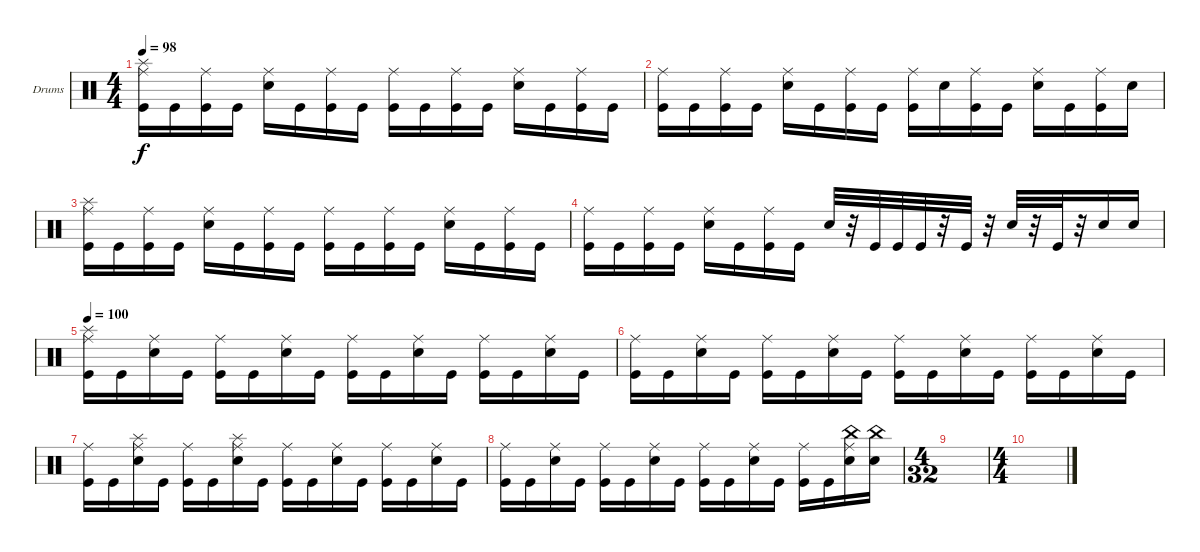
\bracketExtendMode groupsimilarinstruments
\firstSystemTrackNameOrientation horizontal
\otherSystemsTrackNameOrientation horizontal
\track ("Drumkit" "Drums") {instrument percussion}
\staff {score}
\articulation defaults
\ts (4 4)
\tempo 98
\clef neutral
\ks c
("Kick (hit)" "Splash (hit)" "Ride (middle)").16{dy f} "Kick (hit)".16 ("Kick (hit)" "Ride (middle)").16 "Kick (hit)".16 ("Snare (hit) 2" "Ride (middle)").16 "Kick (hit)".16 ("Kick (hit)" "Ride (middle)").16 "Kick (hit)".16 ("Kick (hit)" "Ride (middle)").16 "Kick (hit)".16 ("Kick (hit)" "Ride (middle)").16 "Kick (hit)".16 ("Snare (hit) 2" "Ride (middle)").16 "Kick (hit)".16 ("Kick (hit)" "Ride (middle)").16 "Kick (hit)".16 |
("Kick (hit)" "Ride (middle)").16 "Kick (hit)".16 ("Kick (hit)" "Ride (middle)").16 "Kick (hit)".16 ("Snare (hit) 2" "Ride (middle)").16 "Kick (hit)".16 ("Kick (hit)" "Ride (middle)").16 "Kick (hit)".16 ("Kick (hit)" "Ride (middle)").16 "Snare (hit) 2".16 ("Kick (hit)" "Ride (middle)").16 "Kick (hit)".16 ("Snare (hit) 2" "Ride (middle)").16 "Kick (hit)".16 ("Kick (hit)" "Ride (middle)").16 "Snare (hit) 2".16 |
("Kick (hit)" "Splash (hit)" "Ride (middle)").16 "Kick (hit)".16 ("Kick (hit)" "Ride (middle)").16 "Kick (hit)".16 ("Snare (hit) 2" "Ride (middle)").16 "Kick (hit)".16 ("Kick (hit)" "Ride (middle)").16 "Kick (hit)".16 ("Kick (hit)" "Ride (middle)").16 "Kick (hit)".16 ("Kick (hit)" "Ride (middle)").16 "Kick (hit)".16 ("Snare (hit) 2" "Ride (middle)").16 "Kick (hit)".16 ("Kick (hit)" "Ride (middle)").16 "Kick (hit)".16 |
("Kick (hit)" "Ride (middle)").16 "Kick (hit)".16 ("Kick (hit)" "Ride (middle)").16 "Kick (hit)".16 ("Snare (hit) 2" "Ride (middle)").16 "Kick (hit)".16 ("Kick (hit)" "Ride (middle)").16 "Kick (hit)".16 "Snare (hit) 2".32 r.32 "Kick (hit)".32 "Kick (hit)".32 "Kick (hit)".32 r.32 "Kick (hit)".32 r.32 "Snare (hit) 2".32 r.32 "Kick (hit)".32 r.32 "Snare (hit) 2".16 "Snare (hit) 2".16 |
\tempo 100
("Kick (hit)" "Splash (hit)" "Ride (middle)").16 "Kick (hit)".16 ("Snare (hit) 2" "Ride (middle)").16 "Kick (hit)".16 ("Kick (hit)" "Ride (middle)").16 "Kick (hit)".16 ("Snare (hit) 2" "Ride (middle)").16 "Kick (hit)".16 ("Kick (hit)" "Ride (middle)").16 "Kick (hit)".16 ("Snare (hit) 2" "Ride (middle)").16 "Kick (hit)".16 ("Kick (hit)" "Ride (middle)").16 "Kick (hit)".16 ("Snare (hit) 2" "Ride (middle)").16 "Kick (hit)".16 |
("Kick (hit)" "Ride (middle)").16 "Kick (hit)".16 ("Snare (hit) 2" "Ride (middle)").16 "Kick (hit)".16 ("Kick (hit)" "Ride (middle)").16 "Kick (hit)".16 ("Snare (hit) 2" "Ride (middle)").16 "Kick (hit)".16 ("Kick (hit)" "Ride (middle)").16 "Kick (hit)".16 ("Snare (hit) 2" "Ride (middle)").16 "Kick (hit)".16 ("Kick (hit)" "Ride (middle)").16 "Kick (hit)".16 ("Snare (hit) 2" "Ride (middle)").16 "Kick (hit)".16 |
("Kick (hit)" "Ride (middle)").16 "Kick (hit)".16 ("Snare (hit) 2" "Ride (middle)" "Splash (hit)").16 "Kick (hit)".16 ("Kick (hit)" "Ride (middle)").16 "Kick (hit)".16 ("Snare (hit) 2" "Ride (middle)" "Splash (hit)").16 "Kick (hit)".16 ("Kick (hit)" "Ride (middle)").16 "Kick (hit)".16 ("Snare (hit) 2" "Ride (middle)").16 "Kick (hit)".16 ("Kick (hit)" "Ride (middle)").16 "Kick (hit)".16 ("Snare (hit) 2" "Ride (middle)").16 "Kick (hit)".16 |
("Kick (hit)" "Ride (middle)").16 "Kick (hit)".16 ("Snare (hit) 2" "Ride (middle)").16 "Kick (hit)".16 ("Kick (hit)" "Ride (middle)").16 "Kick (hit)".16 ("Snare (hit) 2" "Ride (middle)").16 "Kick (hit)".16 ("Kick (hit)" "Ride (middle)").16 "Kick (hit)".16 ("Snare (hit) 2" "Ride (middle)").16 "Kick (hit)".16 ("Kick (hit)" "Ride (middle)").16 "Kick (hit)".16 ("Snare (hit) 2" "Ride (middle)" "China (hit)").16 ("Snare (hit) 2" "China (hit)").16 |
\ts (4 32)
|
\ts (4 4)
